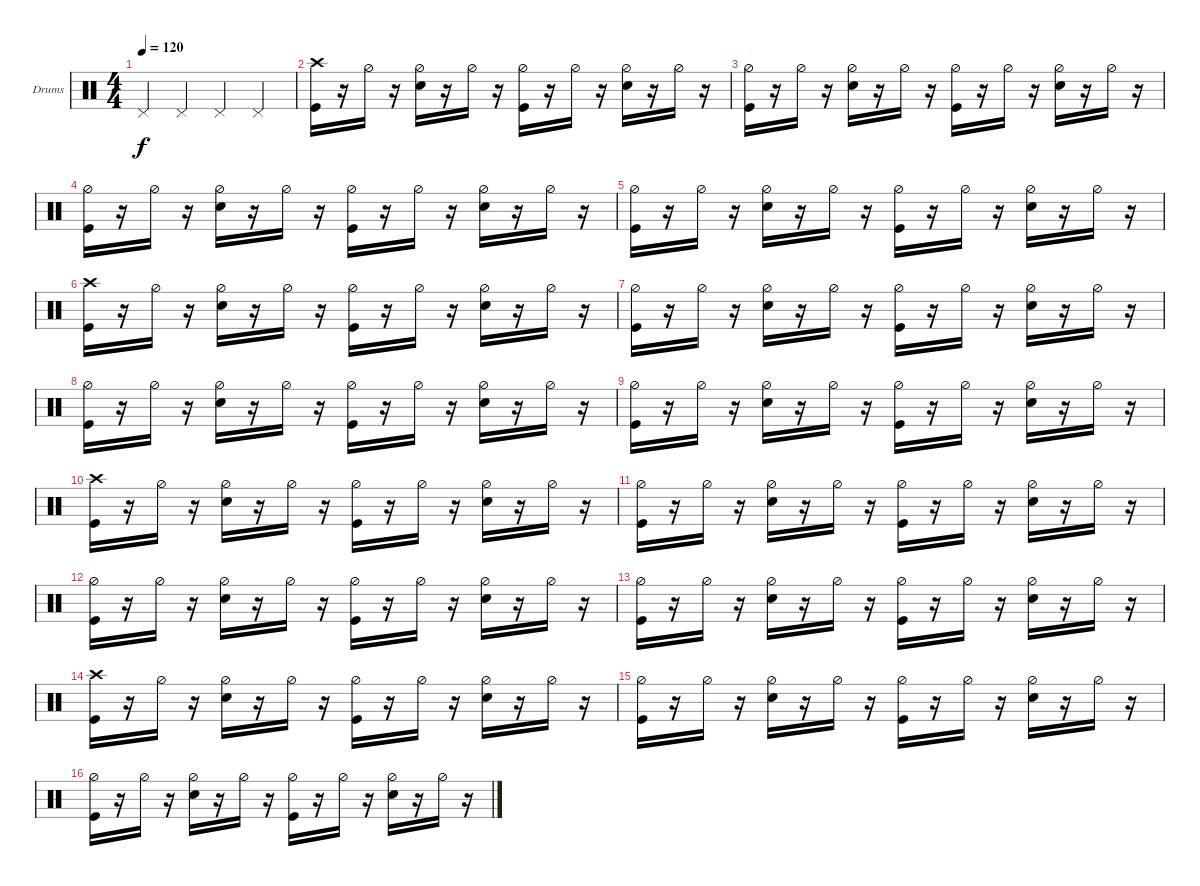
\defaultSystemsLayout 4
\bracketExtendMode groupsimilarinstruments
\firstSystemTrackNameOrientation horizontal
\otherSystemsTrackNameOrientation horizontal
\track ("Drums  SK" "Drums") {instrument percussion}
\staff {score}
\articulation defaults
\ts (4 4)
\tempo 120
\clef neutral
\ks c "Pedal Hi-Hat (hit)".4{dy f} "Pedal Hi-Hat (hit)".4 "Pedal Hi-Hat (hit)".4 "Pedal Hi-Hat (hit)".4
|
("Kick (hit)" "Crash high (hit)").16 r.16 "Hi-Hat (half)".16 r.16 ("Snare (hit) 2" "Hi-Hat (half)").16 r.16 "Hi-Hat (half)".16 r.16 ("Kick (hit)" "Hi-Hat (half)").16 r.16 "Hi-Hat (half)".16 r.16 ("Snare (hit) 2" "Hi-Hat (half)").16 r.16 "Hi-Hat (half)".16 r.16 |
("Kick (hit)" "Hi-Hat (half)").16 r.16 "Hi-Hat (half)".16 r.16 ("Snare (hit) 2" "Hi-Hat (half)").16 r.16 "Hi-Hat (half)".16 r.16 ("Kick (hit)" "Hi-Hat (half)").16 r.16 "Hi-Hat (half)".16 r.16 ("Snare (hit) 2" "Hi-Hat (half)").16 r.16 "Hi-Hat (half)".16 r.16 |
("Kick (hit)" "Hi-Hat (half)").16 r.16 "Hi-Hat (half)".16 r.16 ("Snare (hit) 2" "Hi-Hat (half)").16 r.16 "Hi-Hat (half)".16 r.16 ("Kick (hit)" "Hi-Hat (half)").16 r.16 "Hi-Hat (half)".16 r.16 ("Snare (hit) 2" "Hi-Hat (half)").16 r.16 "Hi-Hat (half)".16 r.16 |
("Kick (hit)" "Hi-Hat (half)").16 r.16 "Hi-Hat (half)".16 r.16 ("Snare (hit) 2" "Hi-Hat (half)").16 r.16 "Hi-Hat (half)".16 r.16 ("Kick (hit)" "Hi-Hat (half)").16 r.16 "Hi-Hat (half)".16 r.16 ("Snare (hit) 2" "Hi-Hat (half)").16 r.16 "Hi-Hat (half)".16 r.16 |
("Kick (hit)" "Crash high (hit)").16 r.16 "Hi-Hat (half)".16 r.16 ("Snare (hit) 2" "Hi-Hat (half)").16 r.16 "Hi-Hat (half)".16 r.16 ("Kick (hit)" "Hi-Hat (half)").16 r.16 "Hi-Hat (half)".16 r.16 ("Snare (hit) 2" "Hi-Hat (half)").16 r.16 "Hi-Hat (half)".16 r.16 |
("Kick (hit)" "Hi-Hat (half)").16 r.16 "Hi-Hat (half)".16 r.16 ("Snare (hit) 2" "Hi-Hat (half)").16 r.16 "Hi-Hat (half)".16 r.16 ("Kick (hit)" "Hi-Hat (half)").16 r.16 "Hi-Hat (half)".16 r.16 ("Snare (hit) 2" "Hi-Hat (half)").16 r.16 "Hi-Hat (half)".16 r.16 |
("Kick (hit)" "Hi-Hat (half)").16 r.16 "Hi-Hat (half)".16 r.16 ("Snare (hit) 2" "Hi-Hat (half)").16 r.16 "Hi-Hat (half)".16 r.16 ("Kick (hit)" "Hi-Hat (half)").16 r.16 "Hi-Hat (half)".16 r.16 ("Snare (hit) 2" "Hi-Hat (half)").16 r.16 "Hi-Hat (half)".16 r.16 |
("Kick (hit)" "Hi-Hat (half)").16 r.16 "Hi-Hat (half)".16 r.16 ("Snare (hit) 2" "Hi-Hat (half)").16 r.16 "Hi-Hat (half)".16 r.16 ("Kick (hit)" "Hi-Hat (half)").16 r.16 "Hi-Hat (half)".16 r.16 ("Snare (hit) 2" "Hi-Hat (half)").16 r.16 "Hi-Hat (half)".16 r.16 |
("Kick (hit)" "Crash high (hit)").16 r.16 "Hi-Hat (half)".16 r.16 ("Snare (hit) 2" "Hi-Hat (half)").16 r.16 "Hi-Hat (half)".16 r.16 ("Kick (hit)" "Hi-Hat (half)").16 r.16 "Hi-Hat (half)".16 r.16 ("Snare (hit) 2" "Hi-Hat (half)").16 r.16 "Hi-Hat (half)".16 r.16 |
("Kick (hit)" "Hi-Hat (half)").16 r.16 "Hi-Hat (half)".16 r.16 ("Snare (hit) 2" "Hi-Hat (half)").16 r.16 "Hi-Hat (half)".16 r.16 ("Kick (hit)" "Hi-Hat (half)").16 r.16 "Hi-Hat (half)".16 r.16 ("Snare (hit) 2" "Hi-Hat (half)").16 r.16 "Hi-Hat (half)".16 r.16 |
("Kick (hit)" "Hi-Hat (half)").16 r.16 "Hi-Hat (half)".16 r.16 ("Snare (hit) 2" "Hi-Hat (half)").16 r.16 "Hi-Hat (half)".16 r.16 ("Kick (hit)" "Hi-Hat (half)").16 r.16 "Hi-Hat (half)".16 r.16 ("Snare (hit) 2" "Hi-Hat (half)").16 r.16 "Hi-Hat (half)".16 r.16 |
("Kick (hit)" "Hi-Hat (half)").16 r.16 "Hi-Hat (half)".16 r.16 ("Snare (hit) 2" "Hi-Hat (half)").16 r.16 "Hi-Hat (half)".16 r.16 ("Kick (hit)" "Hi-Hat (half)").16 r.16 "Hi-Hat (half)".16 r.16 ("Snare (hit) 2" "Hi-Hat (half)").16 r.16 "Hi-Hat (half)".16 r.16 |
("Kick (hit)" "Crash high (hit)").16 r.16 "Hi-Hat (half)".16 r.16 ("Snare (hit) 2" "Hi-Hat (half)").16 r.16 "Hi-Hat (half)".16 r.16 ("Kick (hit)" "Hi-Hat (half)").16 r.16 "Hi-Hat (half)".16 r.16 ("Snare (hit) 2" "Hi-Hat (half)").16 r.16 "Hi-Hat (half)".16 r.16 |
("Kick (hit)" "Hi-Hat (half)").16 r.16 "Hi-Hat (half)".16 r.16 ("Snare (hit) 2" "Hi-Hat (half)").16 r.16 "Hi-Hat (half)".16 r.16 ("Kick (hit)" "Hi-Hat (half)").16 r.16 "Hi-Hat (half)".16 r.16 ("Snare (hit) 2" "Hi-Hat (half)").16 r.16 "Hi-Hat (half)".16 r.16 |
("Kick (hit)" "Hi-Hat (half)").16 r.16 "Hi-Hat (half)".16 r.16 ("Snare (hit) 2" "Hi-Hat (half)").16 r.16 "Hi-Hat (half)".16 r.16 ("Kick (hit)" "Hi-Hat (half)").16 r.16 "Hi-Hat (half)".16 r.16 ("Snare (hit) 2" "Hi-Hat (half)").16 r.16 "Hi-Hat (half)".16 r.16
